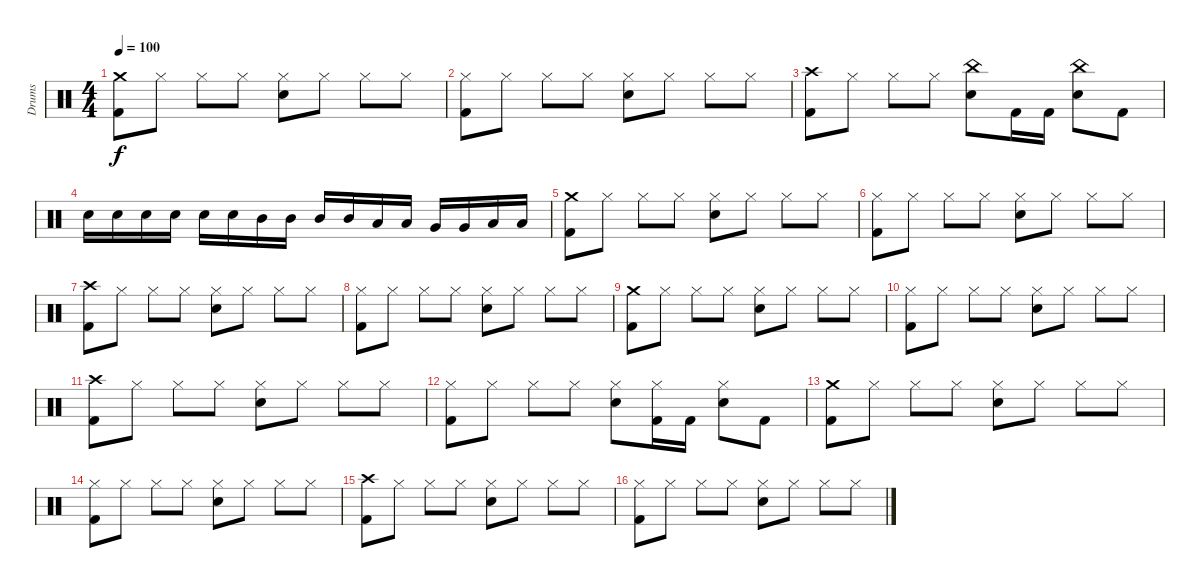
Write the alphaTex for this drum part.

\track ("Drums" "Drums") {instrument percussion}
\staff {score}
\articulation defaults
\ts (4 4)
\tempo 100
\clef neutral
\ks c
("Crash medium (hit)" "Kick (hit) 2").8{dy f} "Hi-Hat (closed)".8 "Hi-Hat (closed)".8 "Hi-Hat (closed)".8 ("Hi-Hat (closed)" "Electric Snare (hit)").8 "Hi-Hat (closed)".8 "Hi-Hat (closed)".8 "Hi-Hat (closed)".8 |
("Hi-Hat (closed)" "Kick (hit) 2").8 "Hi-Hat (closed)".8 "Hi-Hat (closed)".8 "Hi-Hat (closed)".8 ("Hi-Hat (closed)" "Electric Snare (hit)").8 "Hi-Hat (closed)".8 "Hi-Hat (closed)".8 "Hi-Hat (closed)".8 |
("Crash high (hit)" "Kick (hit) 2").8 "Hi-Hat (closed)".8 "Hi-Hat (closed)".8 "Hi-Hat (closed)".8 ("China (hit)" "Electric Snare (hit)").8 "Kick (hit) 2".16 "Kick (hit) 2".16 ("China (hit)" "Electric Snare (hit)").8 "Kick (hit) 2".8 |
"Electric Snare (hit)".16 "Electric Snare (hit)".16 "Electric Snare (hit)".16 "Electric Snare (hit)".16 "Electric Snare (hit)".16 "Electric Snare (hit)".16 "Mid Tom (hit)".16 "Mid Tom (hit)".16 "Mid Tom (hit)".16 "Mid Tom (hit)".16 "Low Tom (hit)".16 "Low Tom (hit)".16 "Very Low Tom (hit)".16 "Very Low Tom (hit)".16 "Low Floor Tom (hit)".16 "Low Floor Tom (hit)".16 |
("Crash medium (hit)" "Kick (hit) 2").8 "Hi-Hat (closed)".8 "Hi-Hat (closed)".8 "Hi-Hat (closed)".8 ("Hi-Hat (closed)" "Electric Snare (hit)").8 "Hi-Hat (closed)".8 "Hi-Hat (closed)".8 "Hi-Hat (closed)".8 |
("Hi-Hat (closed)" "Kick (hit) 2").8 "Hi-Hat (closed)".8 "Hi-Hat (closed)".8 "Hi-Hat (closed)".8 ("Hi-Hat (closed)" "Electric Snare (hit)").8 "Hi-Hat (closed)".8 "Hi-Hat (closed)".8 "Hi-Hat (closed)".8 |
("Crash high (hit)" "Kick (hit) 2").8 "Hi-Hat (closed)".8 "Hi-Hat (closed)".8 "Hi-Hat (closed)".8 ("Hi-Hat (closed)" "Electric Snare (hit)").8 "Hi-Hat (closed)".8 "Hi-Hat (closed)".8 "Hi-Hat (closed)".8 |
("Hi-Hat (closed)" "Kick (hit) 2").8 "Hi-Hat (closed)".8 "Hi-Hat (closed)".8 "Hi-Hat (closed)".8 ("Hi-Hat (closed)" "Electric Snare (hit)").8 "Hi-Hat (closed)".8 "Hi-Hat (closed)".8 "Hi-Hat (closed)".8 |
("Crash medium (hit)" "Kick (hit) 2").8 "Hi-Hat (closed)".8 "Hi-Hat (closed)".8 "Hi-Hat (closed)".8 ("Hi-Hat (closed)" "Electric Snare (hit)").8 "Hi-Hat (closed)".8 "Hi-Hat (closed)".8 "Hi-Hat (closed)".8 |
("Hi-Hat (closed)" "Kick (hit) 2").8 "Hi-Hat (closed)".8 "Hi-Hat (closed)".8 "Hi-Hat (closed)".8 ("Hi-Hat (closed)" "Electric Snare (hit)").8 "Hi-Hat (closed)".8 "Hi-Hat (closed)".8 "Hi-Hat (closed)".8 |
("Crash high (hit)" "Kick (hit) 2").8 "Hi-Hat (closed)".8 "Hi-Hat (closed)".8 "Hi-Hat (closed)".8 ("Hi-Hat (closed)" "Electric Snare (hit)").8 "Hi-Hat (closed)".8 "Hi-Hat (closed)".8 "Hi-Hat (closed)".8 |
("Hi-Hat (closed)" "Kick (hit) 2").8 "Hi-Hat (closed)".8 "Hi-Hat (closed)".8 "Hi-Hat (closed)".8 ("Hi-Hat (closed)" "Electric Snare (hit)").8 ("Hi-Hat (closed)" "Kick (hit) 2").16 "Kick (hit) 2".16 ("Hi-Hat (closed)" "Electric Snare (hit)").8 "Kick (hit) 2".8 |
("Crash medium (hit)" "Kick (hit) 2").8 "Hi-Hat (closed)".8 "Hi-Hat (closed)".8 "Hi-Hat (closed)".8 ("Hi-Hat (closed)" "Electric Snare (hit)").8 "Hi-Hat (closed)".8 "Hi-Hat (closed)".8 "Hi-Hat (closed)".8 |
("Hi-Hat (closed)" "Kick (hit) 2").8 "Hi-Hat (closed)".8 "Hi-Hat (closed)".8 "Hi-Hat (closed)".8 ("Hi-Hat (closed)" "Electric Snare (hit)").8 "Hi-Hat (closed)".8 "Hi-Hat (closed)".8 "Hi-Hat (closed)".8 |
("Crash high (hit)" "Kick (hit) 2").8 "Hi-Hat (closed)".8 "Hi-Hat (closed)".8 "Hi-Hat (closed)".8 ("Hi-Hat (closed)" "Electric Snare (hit)").8 "Hi-Hat (closed)".8 "Hi-Hat (closed)".8 "Hi-Hat (closed)".8 |
("Hi-Hat (closed)" "Kick (hit) 2").8 "Hi-Hat (closed)".8 "Hi-Hat (closed)".8 "Hi-Hat (closed)".8 ("Hi-Hat (closed)" "Electric Snare (hit)").8 "Hi-Hat (closed)".8 "Hi-Hat (closed)".8 "Hi-Hat (closed)".8
